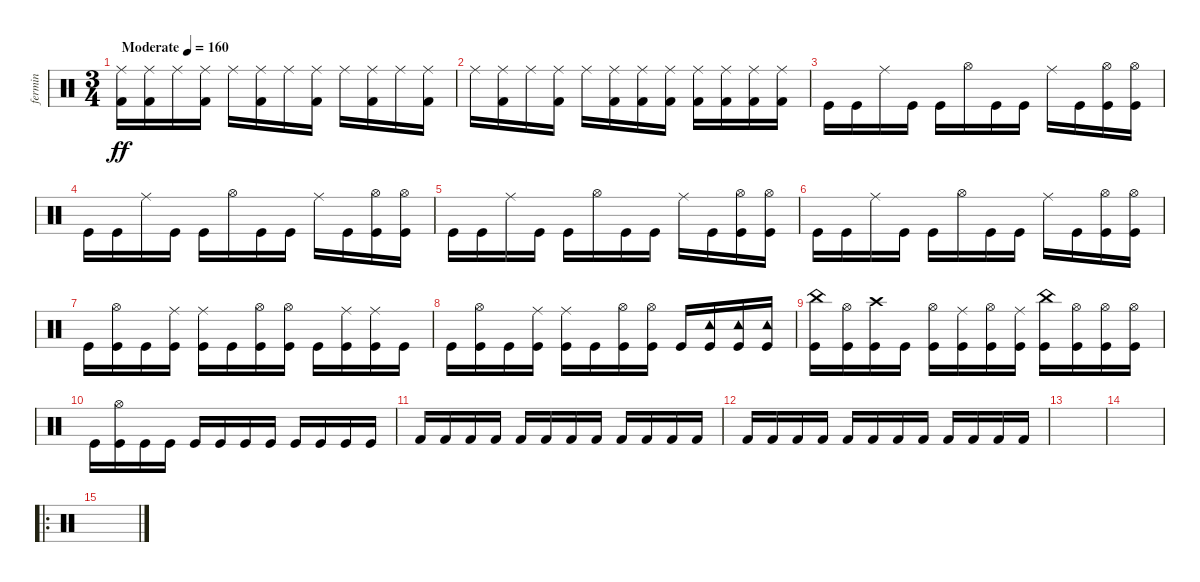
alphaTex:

\track ("fermin" "fermin") {instrument percussion}
\staff {score}
\articulation defaults
\ts (3 4)
\tempo (160 "Moderate")
\clef neutral
\ks c
("Kick (hit) 2" "Ride (middle)").16{dy ff volume 2} ("Kick (hit) 2" "Ride (middle)").16{volume 11} "Ride (middle)".16 ("Kick (hit) 2" "Ride (middle)").16 "Ride (middle)".16 ("Kick (hit) 2" "Ride (middle)").16 "Ride (middle)".16 ("Kick (hit) 2" "Ride (middle)").16 "Ride (middle)".16 ("Kick (hit) 2" "Ride (middle)").16 "Ride (middle)".16 ("Kick (hit) 2" "Ride (middle)").16 |
"Ride (middle)".16 ("Kick (hit) 2" "Ride (middle)").16 "Ride (middle)".16 ("Kick (hit) 2" "Ride (middle)").16 "Ride (middle)".16 ("Kick (hit) 2" "Ride (middle)").16 ("Kick (hit) 2" "Ride (middle)").16 ("Kick (hit) 2" "Ride (middle)").16 ("Kick (hit) 2" "Ride (middle)").16 ("Kick (hit) 2" "Ride (middle)").16 ("Kick (hit) 2" "Ride (middle)").16 ("Kick (hit) 2" "Ride (middle)").16 |
"Kick (hit)".16 "Kick (hit)".16 "Ride (middle)".16 "Kick (hit)".16 "Kick (hit)".16 "Hi-Hat (open)".16 "Kick (hit)".16 "Kick (hit)".16 "Ride (middle)".16 "Kick (hit)".16 ("Kick (hit)" "Hi-Hat (open)").16 ("Kick (hit)" "Hi-Hat (open)").16 |
"Kick (hit)".16 "Kick (hit)".16 "Ride (middle)".16 "Kick (hit)".16 "Kick (hit)".16 "Hi-Hat (open)".16 "Kick (hit)".16 "Kick (hit)".16 "Ride (middle)".16 "Kick (hit)".16 ("Kick (hit)" "Hi-Hat (open)").16 ("Kick (hit)" "Hi-Hat (open)").16 |
"Kick (hit)".16 "Kick (hit)".16 "Ride (middle)".16 "Kick (hit)".16 "Kick (hit)".16 "Hi-Hat (open)".16 "Kick (hit)".16 "Kick (hit)".16 "Ride (middle)".16 "Kick (hit)".16 ("Kick (hit)" "Hi-Hat (open)").16 ("Kick (hit)" "Hi-Hat (open)").16 |
"Kick (hit)".16 "Kick (hit)".16 "Ride (middle)".16 "Kick (hit)".16 "Kick (hit)".16 "Hi-Hat (open)".16 "Kick (hit)".16 "Kick (hit)".16 "Ride (middle)".16 "Kick (hit)".16 ("Kick (hit)" "Hi-Hat (open)").16 ("Kick (hit)" "Hi-Hat (open)").16 |
"Kick (hit)".16 ("Kick (hit)" "Hi-Hat (open)").16 "Kick (hit)".16 ("Kick (hit)" "Ride (middle)").16 ("Kick (hit)" "Ride (middle)").16 "Kick (hit)".16 ("Kick (hit)" "Hi-Hat (open)").16 ("Kick (hit)" "Hi-Hat (open)").16 "Kick (hit)".16 ("Kick (hit)" "Ride (middle)").16 ("Kick (hit)" "Ride (middle)").16 "Kick (hit)".16 |
"Kick (hit)".16 ("Kick (hit)" "Hi-Hat (open)").16 "Kick (hit)".16 ("Kick (hit)" "Ride (middle)").16 ("Kick (hit)" "Ride (middle)").16 "Kick (hit)".16 ("Kick (hit)" "Hi-Hat (open)").16 ("Kick (hit)" "Hi-Hat (open)").16 "Kick (hit)".16 ("Kick (hit)" "Tambourine (hit)").16 ("Kick (hit)" "Tambourine (hit)").16 ("Kick (hit)" "Tambourine (hit)").16 |
("Kick (hit)" "China (hit)").16 ("Kick (hit)" "Hi-Hat (open)").16 ("Kick (hit)" "Crash high (hit)").16 "Kick (hit)".16 ("Kick (hit)" "Hi-Hat (open)").16 ("Kick (hit)" "Ride (middle)").16 ("Kick (hit)" "Hi-Hat (open)").16 ("Kick (hit)" "Ride (middle)").16 ("Kick (hit)" "China (hit)").16 ("Kick (hit)" "Hi-Hat (open)").16 ("Kick (hit)" "Hi-Hat (open)").16 ("Kick (hit)" "Hi-Hat (open)").16 |
"Kick (hit)".16 ("Kick (hit)" "Hi-Hat (open)").16 "Kick (hit)".16 "Kick (hit)".16 "Kick (hit)".16 "Kick (hit)".16 "Kick (hit)".16 "Kick (hit)".16 "Kick (hit)".16 "Kick (hit)".16 "Kick (hit)".16 "Kick (hit)".16 |
"Kick (hit) 2".16 "Kick (hit) 2".16 "Kick (hit) 2".16 "Kick (hit) 2".16 "Kick (hit) 2".16 "Kick (hit) 2".16 "Kick (hit) 2".16 "Kick (hit) 2".16 "Kick (hit) 2".16 "Kick (hit) 2".16 "Kick (hit) 2".16 "Kick (hit) 2".16 |
"Kick (hit) 2".16 "Kick (hit) 2".16 "Kick (hit) 2".16 "Kick (hit) 2".16 "Kick (hit) 2".16 "Kick (hit) 2".16 "Kick (hit) 2".16 "Kick (hit) 2".16 "Kick (hit) 2".16 "Kick (hit) 2".16 "Kick (hit) 2".16 "Kick (hit) 2".16 |
|
|
\ro
